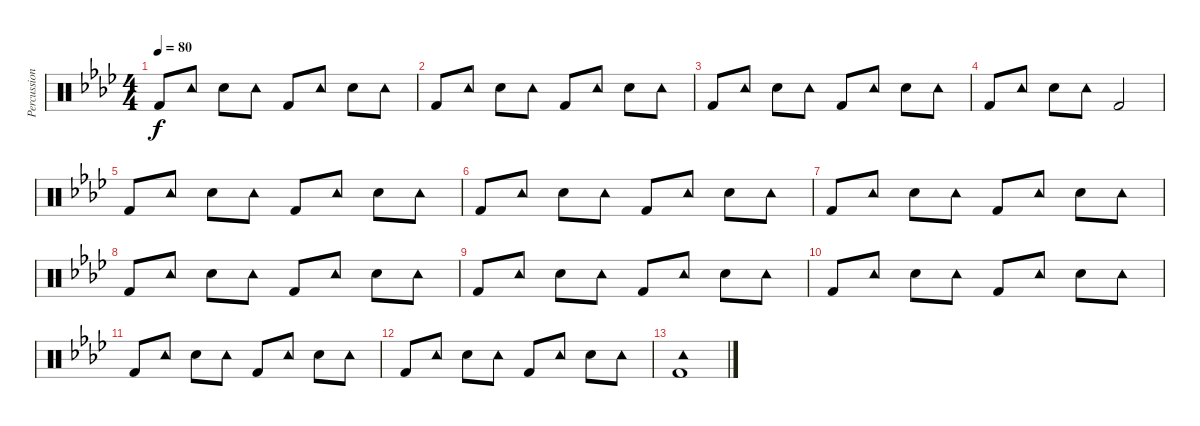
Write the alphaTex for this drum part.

\track ("Percussions" "Percussion") {instrument percussion}
\staff {score}
\articulation defaults
\ts (4 4)
\tempo 80
\clef neutral
\ks ab "Kick (hit) 2".8{dy f} "Tambourine (hit)".8 "Electric Snare (hit)".8 "Tambourine (hit)".8 "Kick (hit) 2".8 "Tambourine (hit)".8 "Electric Snare (hit)".8 "Tambourine (hit)".8
|
"Kick (hit) 2".8 "Tambourine (hit)".8 "Electric Snare (hit)".8 "Tambourine (hit)".8 "Kick (hit) 2".8 "Tambourine (hit)".8 "Electric Snare (hit)".8 "Tambourine (hit)".8 |
"Kick (hit) 2".8 "Tambourine (hit)".8 "Electric Snare (hit)".8 "Tambourine (hit)".8 "Kick (hit) 2".8 "Tambourine (hit)".8 "Electric Snare (hit)".8 "Tambourine (hit)".8 |
"Kick (hit) 2".8 "Tambourine (hit)".8 "Electric Snare (hit)".8 "Tambourine (hit)".8 "Kick (hit) 2".2 |
"Kick (hit) 2".8 "Tambourine (hit)".8 "Electric Snare (hit)".8 "Tambourine (hit)".8 "Kick (hit) 2".8 "Tambourine (hit)".8 "Electric Snare (hit)".8 "Tambourine (hit)".8 |
"Kick (hit) 2".8 "Tambourine (hit)".8 "Electric Snare (hit)".8 "Tambourine (hit)".8 "Kick (hit) 2".8 "Tambourine (hit)".8 "Electric Snare (hit)".8 "Tambourine (hit)".8 |
"Kick (hit) 2".8 "Tambourine (hit)".8 "Electric Snare (hit)".8 "Tambourine (hit)".8 "Kick (hit) 2".8 "Tambourine (hit)".8 "Electric Snare (hit)".8 "Tambourine (hit)".8 |
"Kick (hit) 2".8 "Tambourine (hit)".8 "Electric Snare (hit)".8 "Tambourine (hit)".8 "Kick (hit) 2".8 "Tambourine (hit)".8 "Electric Snare (hit)".8 "Tambourine (hit)".8 |
"Kick (hit) 2".8 "Tambourine (hit)".8 "Electric Snare (hit)".8 "Tambourine (hit)".8 "Kick (hit) 2".8 "Tambourine (hit)".8 "Electric Snare (hit)".8 "Tambourine (hit)".8 |
"Kick (hit) 2".8 "Tambourine (hit)".8 "Electric Snare (hit)".8 "Tambourine (hit)".8 "Kick (hit) 2".8 "Tambourine (hit)".8 "Electric Snare (hit)".8 "Tambourine (hit)".8 |
"Kick (hit) 2".8 "Tambourine (hit)".8 "Electric Snare (hit)".8 "Tambourine (hit)".8 "Kick (hit) 2".8 "Tambourine (hit)".8 "Electric Snare (hit)".8 "Tambourine (hit)".8 |
"Kick (hit) 2".8 "Tambourine (hit)".8 "Electric Snare (hit)".8 "Tambourine (hit)".8 "Kick (hit) 2".8 "Tambourine (hit)".8 "Electric Snare (hit)".8 "Tambourine (hit)".8 |
("Tambourine (hit)" "Kick (hit) 2").1
